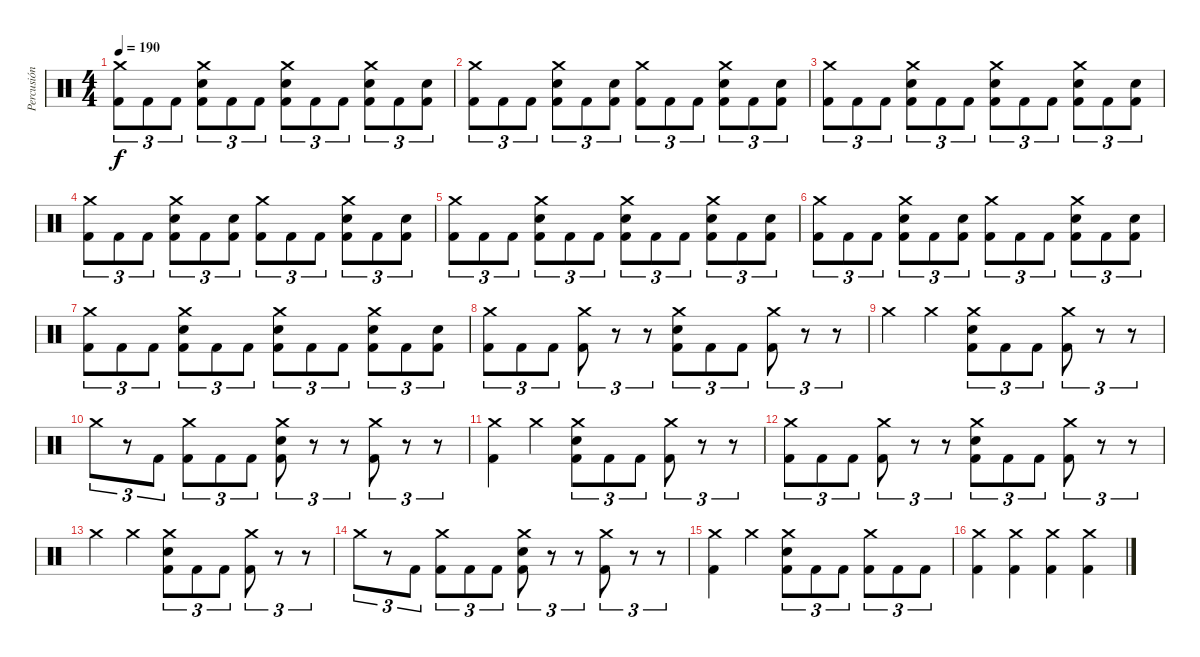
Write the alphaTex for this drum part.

\track ("Percusión" "Percusión") {instrument percussion}
\staff {score}
\articulation defaults
\ts (4 4)
\tempo 190
\clef neutral
\ks c
("Crash medium (hit)" "Kick (hit) 2").8{tu (3 2) dy f} "Kick (hit) 2".8{tu (3 2)} "Kick (hit) 2".8{tu (3 2)} ("Crash medium (hit)" "Electric Snare (hit)" "Kick (hit) 2").8{tu (3 2)} "Kick (hit) 2".8{tu (3 2)} "Kick (hit) 2".8{tu (3 2)} ("Crash medium (hit)" "Electric Snare (hit)" "Kick (hit) 2").8{tu (3 2)} "Kick (hit) 2".8{tu (3 2)} "Kick (hit) 2".8{tu (3 2)} ("Crash medium (hit)" "Electric Snare (hit)" "Kick (hit) 2").8{tu (3 2)} "Kick (hit) 2".8{tu (3 2)} ("Electric Snare (hit)" "Kick (hit) 2").8{tu (3 2)} |
("Crash medium (hit)" "Kick (hit) 2").8{tu (3 2)} "Kick (hit) 2".8{tu (3 2)} "Kick (hit) 2".8{tu (3 2)} ("Crash medium (hit)" "Electric Snare (hit)" "Kick (hit) 2").8{tu (3 2)} "Kick (hit) 2".8{tu (3 2)} ("Electric Snare (hit)" "Kick (hit) 2").8{tu (3 2)} ("Crash medium (hit)" "Kick (hit) 2").8{tu (3 2)} "Kick (hit) 2".8{tu (3 2)} "Kick (hit) 2".8{tu (3 2)} ("Crash medium (hit)" "Electric Snare (hit)" "Kick (hit) 2").8{tu (3 2)} "Kick (hit) 2".8{tu (3 2)} ("Electric Snare (hit)" "Kick (hit) 2").8{tu (3 2)} |
("Crash medium (hit)" "Kick (hit) 2").8{tu (3 2)} "Kick (hit) 2".8{tu (3 2)} "Kick (hit) 2".8{tu (3 2)} ("Crash medium (hit)" "Electric Snare (hit)" "Kick (hit) 2").8{tu (3 2)} "Kick (hit) 2".8{tu (3 2)} "Kick (hit) 2".8{tu (3 2)} ("Crash medium (hit)" "Electric Snare (hit)" "Kick (hit) 2").8{tu (3 2)} "Kick (hit) 2".8{tu (3 2)} "Kick (hit) 2".8{tu (3 2)} ("Crash medium (hit)" "Electric Snare (hit)" "Kick (hit) 2").8{tu (3 2)} "Kick (hit) 2".8{tu (3 2)} ("Electric Snare (hit)" "Kick (hit) 2").8{tu (3 2)} |
("Crash medium (hit)" "Kick (hit) 2").8{tu (3 2)} "Kick (hit) 2".8{tu (3 2)} "Kick (hit) 2".8{tu (3 2)} ("Crash medium (hit)" "Electric Snare (hit)" "Kick (hit) 2").8{tu (3 2)} "Kick (hit) 2".8{tu (3 2)} ("Electric Snare (hit)" "Kick (hit) 2").8{tu (3 2)} ("Crash medium (hit)" "Kick (hit) 2").8{tu (3 2)} "Kick (hit) 2".8{tu (3 2)} "Kick (hit) 2".8{tu (3 2)} ("Crash medium (hit)" "Electric Snare (hit)" "Kick (hit) 2").8{tu (3 2)} "Kick (hit) 2".8{tu (3 2)} ("Electric Snare (hit)" "Kick (hit) 2").8{tu (3 2)} |
("Crash medium (hit)" "Kick (hit) 2").8{tu (3 2)} "Kick (hit) 2".8{tu (3 2)} "Kick (hit) 2".8{tu (3 2)} ("Crash medium (hit)" "Electric Snare (hit)" "Kick (hit) 2").8{tu (3 2)} "Kick (hit) 2".8{tu (3 2)} "Kick (hit) 2".8{tu (3 2)} ("Crash medium (hit)" "Electric Snare (hit)" "Kick (hit) 2").8{tu (3 2)} "Kick (hit) 2".8{tu (3 2)} "Kick (hit) 2".8{tu (3 2)} ("Crash medium (hit)" "Electric Snare (hit)" "Kick (hit) 2").8{tu (3 2)} "Kick (hit) 2".8{tu (3 2)} ("Electric Snare (hit)" "Kick (hit) 2").8{tu (3 2)} |
("Crash medium (hit)" "Kick (hit) 2").8{tu (3 2)} "Kick (hit) 2".8{tu (3 2)} "Kick (hit) 2".8{tu (3 2)} ("Crash medium (hit)" "Electric Snare (hit)" "Kick (hit) 2").8{tu (3 2)} "Kick (hit) 2".8{tu (3 2)} ("Electric Snare (hit)" "Kick (hit) 2").8{tu (3 2)} ("Crash medium (hit)" "Kick (hit) 2").8{tu (3 2)} "Kick (hit) 2".8{tu (3 2)} "Kick (hit) 2".8{tu (3 2)} ("Crash medium (hit)" "Electric Snare (hit)" "Kick (hit) 2").8{tu (3 2)} "Kick (hit) 2".8{tu (3 2)} ("Electric Snare (hit)" "Kick (hit) 2").8{tu (3 2)} |
("Crash medium (hit)" "Kick (hit) 2").8{tu (3 2)} "Kick (hit) 2".8{tu (3 2)} "Kick (hit) 2".8{tu (3 2)} ("Crash medium (hit)" "Electric Snare (hit)" "Kick (hit) 2").8{tu (3 2)} "Kick (hit) 2".8{tu (3 2)} "Kick (hit) 2".8{tu (3 2)} ("Crash medium (hit)" "Electric Snare (hit)" "Kick (hit) 2").8{tu (3 2)} "Kick (hit) 2".8{tu (3 2)} "Kick (hit) 2".8{tu (3 2)} ("Crash medium (hit)" "Electric Snare (hit)" "Kick (hit) 2").8{tu (3 2)} "Kick (hit) 2".8{tu (3 2)} ("Electric Snare (hit)" "Kick (hit) 2").8{tu (3 2)} |
("Crash medium (hit)" "Kick (hit) 2").8{tu (3 2)} "Kick (hit) 2".8{tu (3 2)} "Kick (hit) 2".8{tu (3 2)} ("Crash medium (hit)" "Kick (hit) 2").8{tu (3 2)} r.8{tu (3 2)} r.8{tu (3 2)} ("Crash medium (hit)" "Electric Snare (hit)" "Kick (hit) 2").8{tu (3 2)} "Kick (hit) 2".8{tu (3 2)} "Kick (hit) 2".8{tu (3 2)} ("Crash medium (hit)" "Kick (hit) 2").8{tu (3 2)} r.8{tu (3 2)} r.8{tu (3 2)} |
"Crash medium (hit)".4 "Crash medium (hit)".4 ("Crash medium (hit)" "Electric Snare (hit)" "Kick (hit) 2").8{tu (3 2)} "Kick (hit) 2".8{tu (3 2)} "Kick (hit) 2".8{tu (3 2)} ("Crash medium (hit)" "Kick (hit) 2").8{tu (3 2)} r.8{tu (3 2)} r.8{tu (3 2)} |
"Crash medium (hit)".8{tu (3 2)} r.8{tu (3 2)} "Kick (hit) 2".8{tu (3 2)} ("Crash medium (hit)" "Kick (hit) 2").8{tu (3 2)} "Kick (hit) 2".8{tu (3 2)} "Kick (hit) 2".8{tu (3 2)} ("Crash medium (hit)" "Electric Snare (hit)" "Kick (hit) 2").8{tu (3 2)} r.8{tu (3 2)} r.8{tu (3 2)} ("Crash medium (hit)" "Kick (hit) 2").8{tu (3 2)} r.8{tu (3 2)} r.8{tu (3 2)} |
("Crash medium (hit)" "Kick (hit) 2").4 "Crash medium (hit)".4 ("Crash medium (hit)" "Electric Snare (hit)" "Kick (hit) 2").8{tu (3 2)} "Kick (hit) 2".8{tu (3 2)} "Kick (hit) 2".8{tu (3 2)} ("Crash medium (hit)" "Kick (hit) 2").8{tu (3 2)} r.8{tu (3 2)} r.8{tu (3 2)} |
("Crash medium (hit)" "Kick (hit) 2").8{tu (3 2)} "Kick (hit) 2".8{tu (3 2)} "Kick (hit) 2".8{tu (3 2)} ("Crash medium (hit)" "Kick (hit) 2").8{tu (3 2)} r.8{tu (3 2)} r.8{tu (3 2)} ("Crash medium (hit)" "Electric Snare (hit)" "Kick (hit) 2").8{tu (3 2)} "Kick (hit) 2".8{tu (3 2)} "Kick (hit) 2".8{tu (3 2)} ("Crash medium (hit)" "Kick (hit) 2").8{tu (3 2)} r.8{tu (3 2)} r.8{tu (3 2)} |
"Crash medium (hit)".4 "Crash medium (hit)".4 ("Crash medium (hit)" "Electric Snare (hit)" "Kick (hit) 2").8{tu (3 2)} "Kick (hit) 2".8{tu (3 2)} "Kick (hit) 2".8{tu (3 2)} ("Crash medium (hit)" "Kick (hit) 2").8{tu (3 2)} r.8{tu (3 2)} r.8{tu (3 2)} |
"Crash medium (hit)".8{tu (3 2)} r.8{tu (3 2)} "Kick (hit) 2".8{tu (3 2)} ("Crash medium (hit)" "Kick (hit) 2").8{tu (3 2)} "Kick (hit) 2".8{tu (3 2)} "Kick (hit) 2".8{tu (3 2)} ("Crash medium (hit)" "Electric Snare (hit)" "Kick (hit) 2").8{tu (3 2)} r.8{tu (3 2)} r.8{tu (3 2)} ("Crash medium (hit)" "Kick (hit) 2").8{tu (3 2)} r.8{tu (3 2)} r.8{tu (3 2)} |
("Crash medium (hit)" "Kick (hit) 2").4 "Crash medium (hit)".4 ("Crash medium (hit)" "Electric Snare (hit)" "Kick (hit) 2").8{tu (3 2)} "Kick (hit) 2".8{tu (3 2)} "Kick (hit) 2".8{tu (3 2)} ("Crash medium (hit)" "Kick (hit) 2").8{tu (3 2)} "Kick (hit) 2".8{tu (3 2)} "Kick (hit) 2".8{tu (3 2)} |
("Crash medium (hit)" "Kick (hit) 2").4 ("Crash medium (hit)" "Kick (hit) 2").4 ("Crash medium (hit)" "Kick (hit) 2").4 ("Crash medium (hit)" "Kick (hit) 2").4
